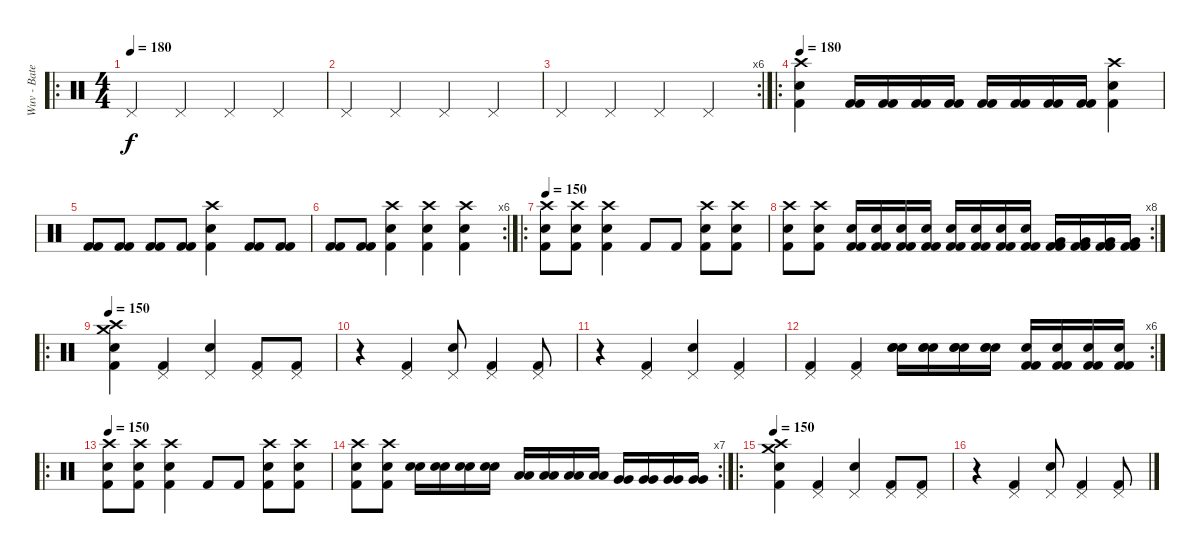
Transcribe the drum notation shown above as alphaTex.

\track ("Wuv - Bateria " "Wuv - Bate") {instrument percussion}
\staff {score}
\articulation defaults
\ro
\ts (4 4)
\tempo 180
\clef neutral
\ks c "Pedal Hi-Hat (hit)".4{dy f} "Pedal Hi-Hat (hit)".4 "Pedal Hi-Hat (hit)".4 "Pedal Hi-Hat (hit)".4
|
"Pedal Hi-Hat (hit)".4 "Pedal Hi-Hat (hit)".4 "Pedal Hi-Hat (hit)".4 "Pedal Hi-Hat (hit)".4 |
\rc 6 "Pedal Hi-Hat (hit)".4 "Pedal Hi-Hat (hit)".4 "Pedal Hi-Hat (hit)".4 "Pedal Hi-Hat (hit)".4
|
\ro
\tempo 180
("Crash high (hit)" "Electric Snare (hit)" "Kick (hit) 2").4 ("Kick (hit) 2" "Kick (hit) 2").16 ("Kick (hit) 2" "Kick (hit) 2").16 ("Kick (hit) 2" "Kick (hit) 2").16 ("Kick (hit) 2" "Kick (hit) 2").16 ("Kick (hit) 2" "Kick (hit) 2").16 ("Kick (hit) 2" "Kick (hit) 2").16 ("Kick (hit) 2" "Kick (hit) 2").16 ("Kick (hit) 2" "Kick (hit) 2").16 ("Crash high (hit)" "Electric Snare (hit)" "Kick (hit) 2").4 |
("Kick (hit) 2" "Kick (hit) 2").8 ("Kick (hit) 2" "Kick (hit) 2").8 ("Kick (hit) 2" "Kick (hit) 2").8 ("Kick (hit) 2" "Kick (hit) 2").8 ("Crash high (hit)" "Electric Snare (hit)" "Kick (hit) 2").4 ("Kick (hit) 2" "Kick (hit) 2").8 ("Kick (hit) 2" "Kick (hit) 2").8 |
\rc 6
("Kick (hit) 2" "Kick (hit) 2").8 ("Kick (hit) 2" "Kick (hit) 2").8 ("Crash high (hit)" "Electric Snare (hit)" "Kick (hit) 2").4 ("Crash high (hit)" "Electric Snare (hit)" "Kick (hit) 2").4 ("Crash high (hit)" "Electric Snare (hit)" "Kick (hit) 2").4 |
\ro
\tempo 140
\tempo 150
("Crash high (hit)" "Electric Snare (hit)" "Kick (hit) 2").8 ("Crash high (hit)" "Electric Snare (hit)" "Kick (hit) 2").8 ("Crash high (hit)" "Electric Snare (hit)" "Kick (hit) 2").4 "Kick (hit) 2".8 "Kick (hit) 2".8 ("Crash high (hit)" "Electric Snare (hit)" "Kick (hit) 2").8 ("Crash high (hit)" "Electric Snare (hit)" "Kick (hit) 2").8 |
\rc 8
("Crash high (hit)" "Electric Snare (hit)" "Kick (hit) 2").8 ("Crash high (hit)" "Electric Snare (hit)" "Kick (hit) 2").8 ("Electric Snare (hit)" "Kick (hit) 2" "Kick (hit) 2").16 ("Electric Snare (hit)" "Kick (hit) 2" "Kick (hit) 2").16 ("Electric Snare (hit)" "Kick (hit) 2" "Kick (hit) 2").16 ("Electric Snare (hit)" "Kick (hit) 2" "Kick (hit) 2").16 ("Snare (hit) 2" "Kick (hit) 2" "Kick (hit) 2").16 ("Snare (hit) 2" "Kick (hit) 2" "Kick (hit) 2").16 ("Snare (hit) 2" "Kick (hit) 2" "Kick (hit) 2").16 ("Snare (hit) 2" "Kick (hit) 2" "Kick (hit) 2").16 ("Very Low Tom (hit)" "Kick (hit) 2" "Kick (hit) 2").16 ("Very Low Tom (hit)" "Kick (hit) 2" "Kick (hit) 2").16 ("Very Low Tom (hit)" "Kick (hit) 2" "Kick (hit) 2").16 ("Very Low Tom (hit)" "Kick (hit) 2" "Kick (hit) 2").16 |
\ro
\tempo 150
("Snare (hit)" "Kick (hit) 2" "Crash medium (hit)" "Crash high (hit)").4 ("Pedal Hi-Hat (hit)" "Kick (hit) 2").4 ("Pedal Hi-Hat (hit)" "Electric Snare (hit)").4 ("Pedal Hi-Hat (hit)" "Kick (hit) 2").8 ("Pedal Hi-Hat (hit)" "Kick (hit) 2").8 |
r.4 ("Pedal Hi-Hat (hit)" "Kick (hit) 2").4 ("Pedal Hi-Hat (hit)" "Electric Snare (hit)").8 ("Pedal Hi-Hat (hit)" "Kick (hit) 2").4 ("Pedal Hi-Hat (hit)" "Kick (hit) 2").8 |
r.4 ("Pedal Hi-Hat (hit)" "Kick (hit) 2").4 ("Pedal Hi-Hat (hit)" "Electric Snare (hit)").4 ("Pedal Hi-Hat (hit)" "Kick (hit) 2").4 |
\rc 6
("Pedal Hi-Hat (hit)" "Kick (hit) 2").4 ("Pedal Hi-Hat (hit)" "Kick (hit) 2").4 ("Snare (hit)" "Electric Snare (hit)" "Electric Snare (hit)").16 ("Snare (hit)" "Electric Snare (hit)" "Electric Snare (hit)").16 ("Snare (hit)" "Electric Snare (hit)" "Electric Snare (hit)").16 ("Snare (hit)" "Electric Snare (hit)" "Electric Snare (hit)").16 ("Snare (hit)" "Kick (hit) 2" "Kick (hit) 2").16 ("Snare (hit)" "Kick (hit) 2" "Kick (hit) 2").16 ("Snare (hit)" "Kick (hit) 2" "Kick (hit) 2").16 ("Snare (hit)" "Kick (hit) 2" "Kick (hit) 2").16 |
\ro
\tempo 150
("Crash high (hit)" "Electric Snare (hit)" "Kick (hit) 2").8 ("Crash high (hit)" "Electric Snare (hit)" "Kick (hit) 2").8 ("Crash high (hit)" "Electric Snare (hit)" "Kick (hit) 2").4 "Kick (hit) 2".8 "Kick (hit) 2".8 ("Crash high (hit)" "Electric Snare (hit)" "Kick (hit) 2").8 ("Crash high (hit)" "Electric Snare (hit)" "Kick (hit) 2").8 |
\rc 7
("Crash high (hit)" "Electric Snare (hit)" "Kick (hit) 2").8 ("Crash high (hit)" "Electric Snare (hit)" "Kick (hit) 2").8 ("Electric Snare (hit)" "Electric Snare (hit)").16 ("Electric Snare (hit)" "Electric Snare (hit)").16 ("Electric Snare (hit)" "Electric Snare (hit)").16 ("Electric Snare (hit)" "Electric Snare (hit)").16 ("Low Tom (hit)" "Low Tom (hit)").16 ("Low Tom (hit)" "Low Tom (hit)").16 ("Low Tom (hit)" "Low Tom (hit)").16 ("Low Tom (hit)" "Low Tom (hit)").16 ("Very Low Tom (hit)" "Very Low Tom (hit)").16 ("Very Low Tom (hit)" "Very Low Tom (hit)").16 ("Very Low Tom (hit)" "Very Low Tom (hit)").16 ("Very Low Tom (hit)" "Very Low Tom (hit)").16 |
\ro
\tempo 150
("Snare (hit)" "Kick (hit) 2" "Crash medium (hit)" "Crash high (hit)").4 ("Pedal Hi-Hat (hit)" "Kick (hit) 2").4 ("Pedal Hi-Hat (hit)" "Electric Snare (hit)").4 ("Pedal Hi-Hat (hit)" "Kick (hit) 2").8 ("Pedal Hi-Hat (hit)" "Kick (hit) 2").8 |
r.4 ("Pedal Hi-Hat (hit)" "Kick (hit) 2").4 ("Pedal Hi-Hat (hit)" "Electric Snare (hit)").8 ("Pedal Hi-Hat (hit)" "Kick (hit) 2").4 ("Pedal Hi-Hat (hit)" "Kick (hit) 2").8
